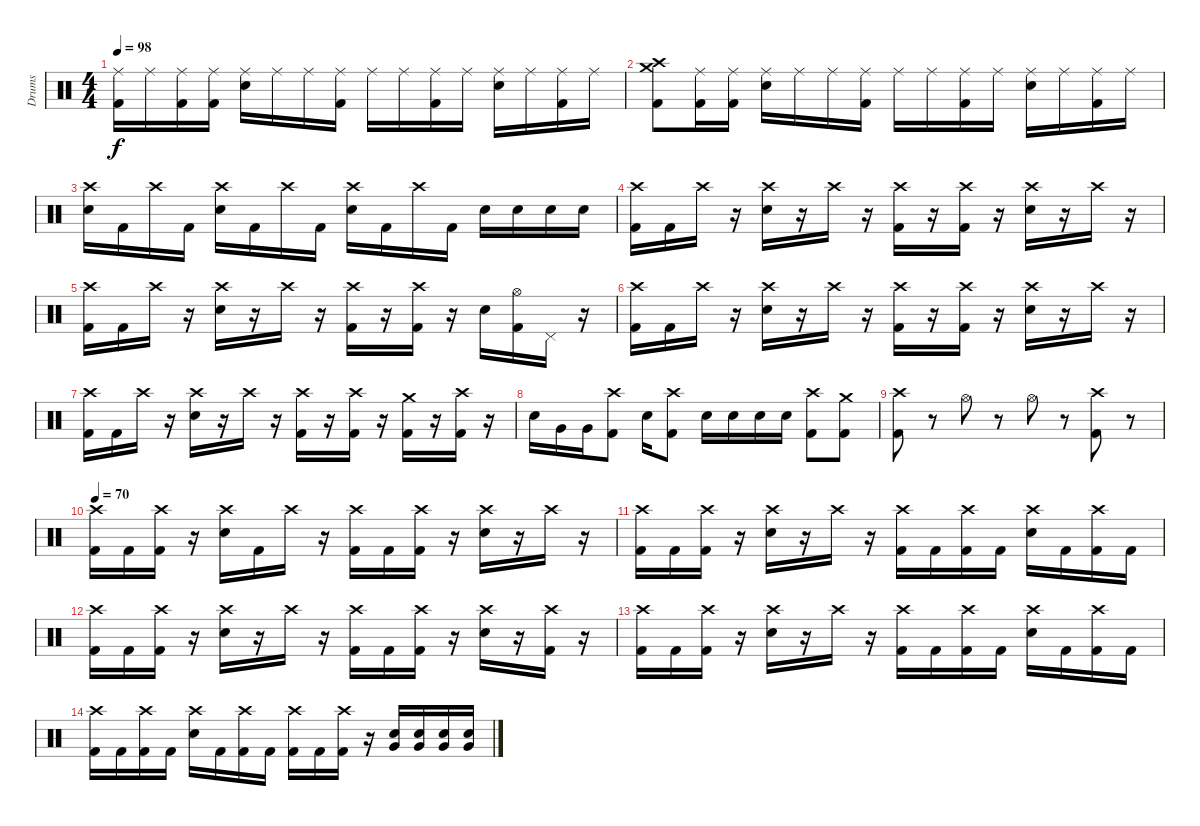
\track ("Drums" "Drums") {instrument percussion}
\staff {score}
\articulation defaults
\ts (4 4)
\tempo 98
\clef neutral
\ks c
("Ride (middle)" "Kick (hit) 2").16{dy f} "Ride (middle)".16 ("Ride (middle)" "Kick (hit) 2").16 ("Ride (middle)" "Kick (hit) 2").16 ("Ride (middle)" "Electric Snare (hit)").16 "Ride (middle)".16 "Ride (middle)".16 ("Ride (middle)" "Kick (hit) 2").16 "Ride (middle)".16 "Ride (middle)".16 ("Ride (middle)" "Kick (hit) 2").16 "Ride (middle)".16 ("Ride (middle)" "Electric Snare (hit)").16 "Ride (middle)".16 ("Ride (middle)" "Kick (hit) 2").16 "Ride (middle)".16 |
("Crash high (hit)" "Crash medium (hit)" "Kick (hit) 2").8 ("Ride (middle)" "Kick (hit) 2").16 ("Ride (middle)" "Kick (hit) 2").16 ("Ride (middle)" "Electric Snare (hit)").16 "Ride (middle)".16 "Ride (middle)".16 ("Ride (middle)" "Kick (hit) 2").16 "Ride (middle)".16 "Ride (middle)".16 ("Ride (middle)" "Kick (hit) 2").16 "Ride (middle)".16 ("Ride (middle)" "Electric Snare (hit)").16 "Ride (middle)".16 ("Ride (middle)" "Kick (hit) 2").16 "Ride (middle)".16 |
("Crash high (hit)" "Electric Snare (hit)").16 "Kick (hit) 2".16 "Crash high (hit)".16 "Kick (hit) 2".16 ("Crash high (hit)" "Electric Snare (hit)").16 "Kick (hit) 2".16 "Crash high (hit)".16 "Kick (hit) 2".16 ("Crash high (hit)" "Electric Snare (hit)").16 "Kick (hit) 2".16 "Crash high (hit)".16 "Kick (hit) 2".16 "Electric Snare (hit)".16 "Electric Snare (hit)".16 "Electric Snare (hit)".16 "Electric Snare (hit)".16 |
("Crash high (hit)" "Kick (hit) 2").16 "Kick (hit) 2".16 "Crash high (hit)".16 r.16 ("Crash high (hit)" "Electric Snare (hit)").16 r.16 "Crash high (hit)".16 r.16 ("Crash high (hit)" "Kick (hit) 2").16 r.16 ("Crash high (hit)" "Kick (hit) 2").16 r.16 ("Crash high (hit)" "Electric Snare (hit)").16 r.16 "Crash high (hit)".16 r.16 |
("Crash high (hit)" "Kick (hit) 2").16 "Kick (hit) 2".16 "Crash high (hit)".16 r.16 ("Crash high (hit)" "Electric Snare (hit)").16 r.16 "Crash high (hit)".16 r.16 ("Crash high (hit)" "Kick (hit) 2").16 r.16 ("Crash high (hit)" "Kick (hit) 2").16 r.16 "Electric Snare (hit)".16 ("Hi-Hat (open)" "Kick (hit) 2").16 "Pedal Hi-Hat (hit)".16 r.16 |
("Crash high (hit)" "Kick (hit) 2").16 "Kick (hit) 2".16 "Crash high (hit)".16 r.16 ("Crash high (hit)" "Electric Snare (hit)").16 r.16 "Crash high (hit)".16 r.16 ("Crash high (hit)" "Kick (hit) 2").16 r.16 ("Crash high (hit)" "Kick (hit) 2").16 r.16 ("Crash high (hit)" "Electric Snare (hit)").16 r.16 "Crash high (hit)".16 r.16 |
("Crash high (hit)" "Kick (hit) 2").16 "Kick (hit) 2".16 "Crash high (hit)".16 r.16 ("Crash high (hit)" "Electric Snare (hit)").16 r.16 "Crash high (hit)".16 r.16 ("Crash high (hit)" "Kick (hit) 2").16 r.16 ("Crash high (hit)" "Kick (hit) 2").16 r.16 ("Crash medium (hit)" "Kick (hit) 2").16 r.16 ("Crash high (hit)" "Kick (hit) 2").16 r.16 |
"Electric Snare (hit)".16 "Very Low Tom (hit)".16 "Very Low Tom (hit)".16 ("Crash high (hit)" "Kick (hit) 2").8 "Electric Snare (hit)".16 ("Crash high (hit)" "Kick (hit) 2").8 "Electric Snare (hit)".16 "Electric Snare (hit)".16 "Electric Snare (hit)".16 "Electric Snare (hit)".16 ("Crash high (hit)" "Kick (hit) 2").8 ("Crash medium (hit)" "Kick (hit) 2").8 |
("Crash high (hit)" "Kick (hit) 2").8 r.8 "Hi-Hat (open)".8 r.8 "Hi-Hat (open)".8 r.8 ("Crash high (hit)" "Kick (hit) 2").8 r.8 |
\tempo 70
("Crash high (hit)" "Kick (hit) 2").16 "Kick (hit) 2".16 ("Crash high (hit)" "Kick (hit) 2").16 r.16 ("Crash high (hit)" "Electric Snare (hit)").16 "Kick (hit) 2".16 "Crash high (hit)".16 r.16 ("Crash high (hit)" "Kick (hit) 2").16 "Kick (hit) 2".16 ("Crash high (hit)" "Kick (hit) 2").16 r.16 ("Crash high (hit)" "Electric Snare (hit)").16 r.16 "Crash high (hit)".16 r.16 |
("Crash high (hit)" "Kick (hit) 2").16 "Kick (hit) 2".16 ("Crash high (hit)" "Kick (hit) 2").16 r.16 ("Crash high (hit)" "Electric Snare (hit)").16 r.16 "Crash high (hit)".16 r.16 ("Crash high (hit)" "Kick (hit) 2").16 "Kick (hit) 2".16 ("Crash high (hit)" "Kick (hit) 2").16 "Kick (hit) 2".16 ("Crash high (hit)" "Electric Snare (hit)").16 "Kick (hit) 2".16 ("Crash high (hit)" "Kick (hit) 2").16 "Kick (hit) 2".16 |
("Crash high (hit)" "Kick (hit) 2").16 "Kick (hit) 2".16 ("Crash high (hit)" "Kick (hit) 2").16 r.16 ("Crash high (hit)" "Electric Snare (hit)").16 r.16 "Crash high (hit)".16 r.16 ("Crash high (hit)" "Kick (hit) 2").16 "Kick (hit) 2".16 ("Crash high (hit)" "Kick (hit) 2").16 r.16 ("Crash high (hit)" "Electric Snare (hit)").16 r.16 ("Crash high (hit)" "Kick (hit) 2").16 r.16 |
("Crash high (hit)" "Kick (hit) 2").16 "Kick (hit) 2".16 ("Crash high (hit)" "Kick (hit) 2").16 r.16 ("Crash high (hit)" "Electric Snare (hit)").16 r.16 "Crash high (hit)".16 r.16 ("Crash high (hit)" "Kick (hit) 2").16 "Kick (hit) 2".16 ("Crash high (hit)" "Kick (hit) 2").16 "Kick (hit) 2".16 ("Crash high (hit)" "Electric Snare (hit)").16 "Kick (hit) 2".16 ("Crash high (hit)" "Kick (hit) 2").16 "Kick (hit) 2".16 |
("Crash high (hit)" "Kick (hit) 2").16 "Kick (hit) 2".16 ("Crash high (hit)" "Kick (hit) 2").16 "Kick (hit) 2".16 ("Crash high (hit)" "Electric Snare (hit)").16 "Kick (hit) 2".16 ("Crash high (hit)" "Kick (hit) 2").16 "Kick (hit) 2".16 ("Crash high (hit)" "Kick (hit) 2").16 "Kick (hit) 2".16 ("Crash high (hit)" "Kick (hit) 2").16 r.16 ("Very Low Tom (hit)" "Electric Snare (hit)").16 ("Very Low Tom (hit)" "Electric Snare (hit)").16 ("Very Low Tom (hit)" "Electric Snare (hit)").16 ("Very Low Tom (hit)" "Electric Snare (hit)").16
